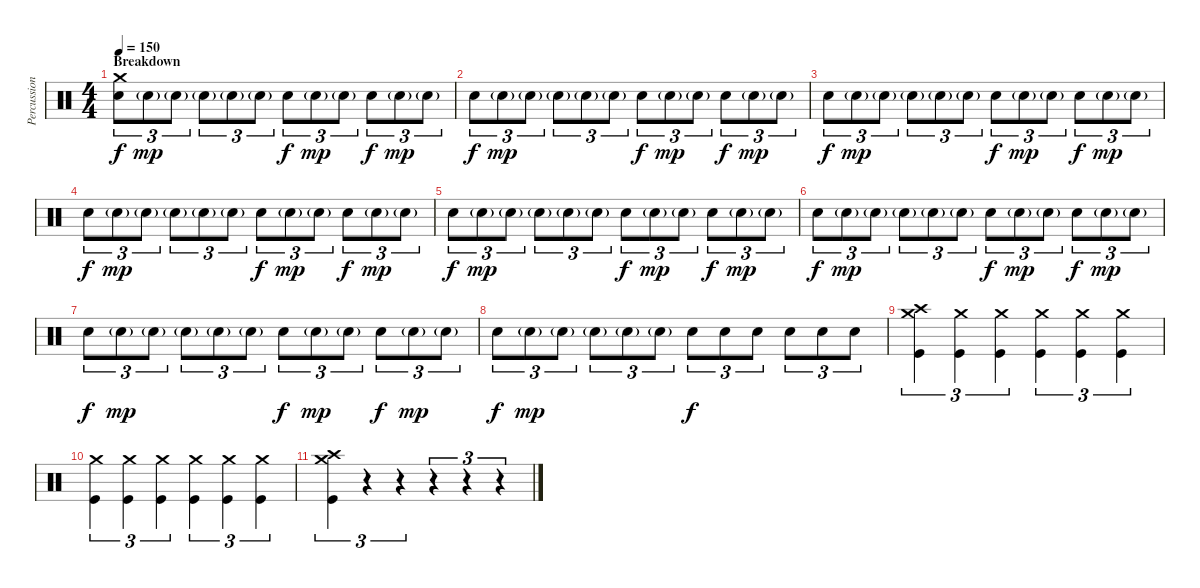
\track ("Percussion" "Percussion") {instrument percussion}
\staff {score}
\articulation defaults
\ts (4 4)
\section ("" "Breakdown")
\tempo 150
\clef neutral
\ks c
("Crash medium (hit)" "Electric Snare (hit)").8{tu (3 2) dy f} "Electric Snare (hit)"{g}.8{tu (3 2) dy mp} "Electric Snare (hit)"{g}.8{tu (3 2)} "Electric Snare (hit)"{g}.8{tu (3 2)} "Electric Snare (hit)"{g}.8{tu (3 2)} "Electric Snare (hit)"{g}.8{tu (3 2)} "Electric Snare (hit)".8{tu (3 2) dy f} "Electric Snare (hit)"{g}.8{tu (3 2) dy mp} "Electric Snare (hit)"{g}.8{tu (3 2)} "Electric Snare (hit)".8{tu (3 2) dy f} "Electric Snare (hit)"{g}.8{tu (3 2) dy mp} "Electric Snare (hit)"{g}.8{tu (3 2)} |
"Electric Snare (hit)".8{tu (3 2) dy f} "Electric Snare (hit)"{g}.8{tu (3 2) dy mp} "Electric Snare (hit)"{g}.8{tu (3 2)} "Electric Snare (hit)"{g}.8{tu (3 2)} "Electric Snare (hit)"{g}.8{tu (3 2)} "Electric Snare (hit)"{g}.8{tu (3 2)} "Electric Snare (hit)".8{tu (3 2) dy f} "Electric Snare (hit)"{g}.8{tu (3 2) dy mp} "Electric Snare (hit)"{g}.8{tu (3 2)} "Electric Snare (hit)".8{tu (3 2) dy f} "Electric Snare (hit)"{g}.8{tu (3 2) dy mp} "Electric Snare (hit)"{g}.8{tu (3 2)} |
"Electric Snare (hit)".8{tu (3 2) dy f} "Electric Snare (hit)"{g}.8{tu (3 2) dy mp} "Electric Snare (hit)"{g}.8{tu (3 2)} "Electric Snare (hit)"{g}.8{tu (3 2)} "Electric Snare (hit)"{g}.8{tu (3 2)} "Electric Snare (hit)"{g}.8{tu (3 2)} "Electric Snare (hit)".8{tu (3 2) dy f} "Electric Snare (hit)"{g}.8{tu (3 2) dy mp} "Electric Snare (hit)"{g}.8{tu (3 2)} "Electric Snare (hit)".8{tu (3 2) dy f} "Electric Snare (hit)"{g}.8{tu (3 2) dy mp} "Electric Snare (hit)"{g}.8{tu (3 2)} |
"Electric Snare (hit)".8{tu (3 2) dy f} "Electric Snare (hit)"{g}.8{tu (3 2) dy mp} "Electric Snare (hit)"{g}.8{tu (3 2)} "Electric Snare (hit)"{g}.8{tu (3 2)} "Electric Snare (hit)"{g}.8{tu (3 2)} "Electric Snare (hit)"{g}.8{tu (3 2)} "Electric Snare (hit)".8{tu (3 2) dy f} "Electric Snare (hit)"{g}.8{tu (3 2) dy mp} "Electric Snare (hit)"{g}.8{tu (3 2)} "Electric Snare (hit)".8{tu (3 2) dy f} "Electric Snare (hit)"{g}.8{tu (3 2) dy mp} "Electric Snare (hit)"{g}.8{tu (3 2)} |
"Electric Snare (hit)".8{tu (3 2) dy f} "Electric Snare (hit)"{g}.8{tu (3 2) dy mp} "Electric Snare (hit)"{g}.8{tu (3 2)} "Electric Snare (hit)"{g}.8{tu (3 2)} "Electric Snare (hit)"{g}.8{tu (3 2)} "Electric Snare (hit)"{g}.8{tu (3 2)} "Electric Snare (hit)".8{tu (3 2) dy f} "Electric Snare (hit)"{g}.8{tu (3 2) dy mp} "Electric Snare (hit)"{g}.8{tu (3 2)} "Electric Snare (hit)".8{tu (3 2) dy f} "Electric Snare (hit)"{g}.8{tu (3 2) dy mp} "Electric Snare (hit)"{g}.8{tu (3 2)} |
"Electric Snare (hit)".8{tu (3 2) dy f} "Electric Snare (hit)"{g}.8{tu (3 2) dy mp} "Electric Snare (hit)"{g}.8{tu (3 2)} "Electric Snare (hit)"{g}.8{tu (3 2)} "Electric Snare (hit)"{g}.8{tu (3 2)} "Electric Snare (hit)"{g}.8{tu (3 2)} "Electric Snare (hit)".8{tu (3 2) dy f} "Electric Snare (hit)"{g}.8{tu (3 2) dy mp} "Electric Snare (hit)"{g}.8{tu (3 2)} "Electric Snare (hit)".8{tu (3 2) dy f} "Electric Snare (hit)"{g}.8{tu (3 2) dy mp} "Electric Snare (hit)"{g}.8{tu (3 2)} |
"Electric Snare (hit)".8{tu (3 2) dy f} "Electric Snare (hit)"{g}.8{tu (3 2) dy mp} "Electric Snare (hit)"{g}.8{tu (3 2)} "Electric Snare (hit)"{g}.8{tu (3 2)} "Electric Snare (hit)"{g}.8{tu (3 2)} "Electric Snare (hit)"{g}.8{tu (3 2)} "Electric Snare (hit)".8{tu (3 2) dy f} "Electric Snare (hit)"{g}.8{tu (3 2) dy mp} "Electric Snare (hit)"{g}.8{tu (3 2)} "Electric Snare (hit)".8{tu (3 2) dy f} "Electric Snare (hit)"{g}.8{tu (3 2) dy mp} "Electric Snare (hit)"{g}.8{tu (3 2)} |
"Electric Snare (hit)".8{tu (3 2) dy f} "Electric Snare (hit)"{g}.8{tu (3 2) dy mp} "Electric Snare (hit)"{g}.8{tu (3 2)} "Electric Snare (hit)"{g}.8{tu (3 2)} "Electric Snare (hit)"{g}.8{tu (3 2)} "Electric Snare (hit)"{g}.8{tu (3 2)} "Electric Snare (hit)".8{tu (3 2) dy f} "Electric Snare (hit)".8{tu (3 2)} "Electric Snare (hit)".8{tu (3 2)} "Electric Snare (hit)".8{tu (3 2)} "Electric Snare (hit)".8{tu (3 2)} "Electric Snare (hit)".8{tu (3 2)} |
("Crash high (hit)" "Crash medium (hit)" "Kick (hit)").4{tu (3 2)} ("Crash medium (hit)" "Kick (hit)").4{tu (3 2)} ("Crash medium (hit)" "Kick (hit)").4{tu (3 2)} ("Crash medium (hit)" "Kick (hit)").4{tu (3 2)} ("Crash medium (hit)" "Kick (hit)").4{tu (3 2)} ("Crash medium (hit)" "Kick (hit)").4{tu (3 2)} |
("Crash medium (hit)" "Kick (hit)").4{tu (3 2)} ("Crash medium (hit)" "Kick (hit)").4{tu (3 2)} ("Crash medium (hit)" "Kick (hit)").4{tu (3 2)} ("Crash medium (hit)" "Kick (hit)").4{tu (3 2)} ("Crash medium (hit)" "Kick (hit)").4{tu (3 2)} ("Crash medium (hit)" "Kick (hit)").4{tu (3 2)} |
("Crash high (hit)" "Crash medium (hit)" "Kick (hit)").4{tu (3 2)} r.4{tu (3 2)} r.4{tu (3 2)} r.4{tu (3 2)} r.4{tu (3 2)} r.4{tu (3 2)}
